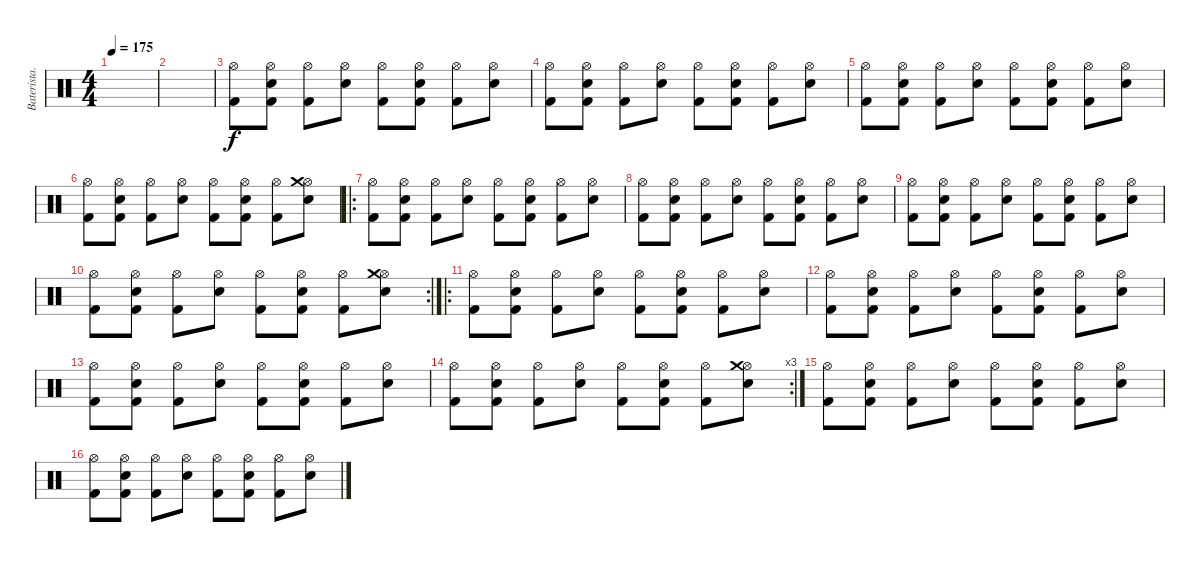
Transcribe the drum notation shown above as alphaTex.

\track ("Baterista." "Baterista.") {instrument percussion}
\staff {score}
\articulation defaults
\ts (4 4)
\tempo 175
\clef neutral
\ks c
|
|
("Kick (hit) 2" "Hi-Hat (open)").8 ("Kick (hit) 2" "Hi-Hat (open)" "Electric Snare (hit)").8 ("Kick (hit) 2" "Hi-Hat (open)").8 ("Hi-Hat (open)" "Electric Snare (hit)").8 ("Kick (hit) 2" "Hi-Hat (open)").8 ("Kick (hit) 2" "Hi-Hat (open)" "Electric Snare (hit)").8 ("Kick (hit) 2" "Hi-Hat (open)").8 ("Hi-Hat (open)" "Electric Snare (hit)").8 |
("Kick (hit) 2" "Hi-Hat (open)").8 ("Kick (hit) 2" "Hi-Hat (open)" "Electric Snare (hit)").8 ("Kick (hit) 2" "Hi-Hat (open)").8 ("Hi-Hat (open)" "Electric Snare (hit)").8 ("Kick (hit) 2" "Hi-Hat (open)").8 ("Kick (hit) 2" "Hi-Hat (open)" "Electric Snare (hit)").8 ("Kick (hit) 2" "Hi-Hat (open)").8 ("Hi-Hat (open)" "Electric Snare (hit)").8 |
("Kick (hit) 2" "Hi-Hat (open)").8 ("Kick (hit) 2" "Hi-Hat (open)" "Electric Snare (hit)").8 ("Kick (hit) 2" "Hi-Hat (open)").8 ("Hi-Hat (open)" "Electric Snare (hit)").8 ("Kick (hit) 2" "Hi-Hat (open)").8 ("Kick (hit) 2" "Hi-Hat (open)" "Electric Snare (hit)").8 ("Kick (hit) 2" "Hi-Hat (open)").8 ("Hi-Hat (open)" "Electric Snare (hit)").8 |
("Kick (hit) 2" "Hi-Hat (open)").8 ("Kick (hit) 2" "Hi-Hat (open)" "Electric Snare (hit)").8 ("Kick (hit) 2" "Hi-Hat (open)").8 ("Hi-Hat (open)" "Electric Snare (hit)").8 ("Kick (hit) 2" "Hi-Hat (open)").8 ("Kick (hit) 2" "Hi-Hat (open)" "Electric Snare (hit)").8 ("Kick (hit) 2" "Hi-Hat (open)").8 ("Hi-Hat (open)" "Electric Snare (hit)" "Crash medium (hit)").8 |
\ro
("Kick (hit) 2" "Hi-Hat (open)").8 ("Kick (hit) 2" "Hi-Hat (open)" "Electric Snare (hit)").8 ("Kick (hit) 2" "Hi-Hat (open)").8 ("Hi-Hat (open)" "Electric Snare (hit)").8 ("Kick (hit) 2" "Hi-Hat (open)").8 ("Kick (hit) 2" "Hi-Hat (open)" "Electric Snare (hit)").8 ("Kick (hit) 2" "Hi-Hat (open)").8 ("Hi-Hat (open)" "Electric Snare (hit)").8 |
("Kick (hit) 2" "Hi-Hat (open)").8 ("Kick (hit) 2" "Hi-Hat (open)" "Electric Snare (hit)").8 ("Kick (hit) 2" "Hi-Hat (open)").8 ("Hi-Hat (open)" "Electric Snare (hit)").8 ("Kick (hit) 2" "Hi-Hat (open)").8 ("Kick (hit) 2" "Hi-Hat (open)" "Electric Snare (hit)").8 ("Kick (hit) 2" "Hi-Hat (open)").8 ("Hi-Hat (open)" "Electric Snare (hit)").8 |
("Kick (hit) 2" "Hi-Hat (open)").8 ("Kick (hit) 2" "Hi-Hat (open)" "Electric Snare (hit)").8 ("Kick (hit) 2" "Hi-Hat (open)").8 ("Hi-Hat (open)" "Electric Snare (hit)").8 ("Kick (hit) 2" "Hi-Hat (open)").8 ("Kick (hit) 2" "Hi-Hat (open)" "Electric Snare (hit)").8 ("Kick (hit) 2" "Hi-Hat (open)").8 ("Hi-Hat (open)" "Electric Snare (hit)").8 |
\rc 2
("Kick (hit) 2" "Hi-Hat (open)").8 ("Kick (hit) 2" "Hi-Hat (open)" "Electric Snare (hit)").8 ("Kick (hit) 2" "Hi-Hat (open)").8 ("Hi-Hat (open)" "Electric Snare (hit)").8 ("Kick (hit) 2" "Hi-Hat (open)").8 ("Kick (hit) 2" "Hi-Hat (open)" "Electric Snare (hit)").8 ("Kick (hit) 2" "Hi-Hat (open)").8 ("Hi-Hat (open)" "Electric Snare (hit)" "Crash medium (hit)").8 |
\ro
("Kick (hit) 2" "Hi-Hat (open)").8 ("Kick (hit) 2" "Hi-Hat (open)" "Electric Snare (hit)").8 ("Kick (hit) 2" "Hi-Hat (open)").8 ("Hi-Hat (open)" "Electric Snare (hit)").8 ("Kick (hit) 2" "Hi-Hat (open)").8 ("Kick (hit) 2" "Hi-Hat (open)" "Electric Snare (hit)").8 ("Kick (hit) 2" "Hi-Hat (open)").8 ("Hi-Hat (open)" "Electric Snare (hit)").8 |
("Kick (hit) 2" "Hi-Hat (open)").8 ("Kick (hit) 2" "Hi-Hat (open)" "Electric Snare (hit)").8 ("Kick (hit) 2" "Hi-Hat (open)").8 ("Hi-Hat (open)" "Electric Snare (hit)").8 ("Kick (hit) 2" "Hi-Hat (open)").8 ("Kick (hit) 2" "Hi-Hat (open)" "Electric Snare (hit)").8 ("Kick (hit) 2" "Hi-Hat (open)").8 ("Hi-Hat (open)" "Electric Snare (hit)").8 |
("Kick (hit) 2" "Hi-Hat (open)").8 ("Kick (hit) 2" "Hi-Hat (open)" "Electric Snare (hit)").8 ("Kick (hit) 2" "Hi-Hat (open)").8 ("Hi-Hat (open)" "Electric Snare (hit)").8 ("Kick (hit) 2" "Hi-Hat (open)").8 ("Kick (hit) 2" "Hi-Hat (open)" "Electric Snare (hit)").8 ("Kick (hit) 2" "Hi-Hat (open)").8 ("Hi-Hat (open)" "Electric Snare (hit)").8 |
\rc 3
("Kick (hit) 2" "Hi-Hat (open)").8 ("Kick (hit) 2" "Hi-Hat (open)" "Electric Snare (hit)").8 ("Kick (hit) 2" "Hi-Hat (open)").8 ("Hi-Hat (open)" "Electric Snare (hit)").8 ("Kick (hit) 2" "Hi-Hat (open)").8 ("Kick (hit) 2" "Hi-Hat (open)" "Electric Snare (hit)").8 ("Kick (hit) 2" "Hi-Hat (open)").8 ("Hi-Hat (open)" "Electric Snare (hit)" "Crash medium (hit)").8 |
("Kick (hit) 2" "Hi-Hat (open)").8 ("Kick (hit) 2" "Hi-Hat (open)" "Electric Snare (hit)").8 ("Kick (hit) 2" "Hi-Hat (open)").8 ("Hi-Hat (open)" "Electric Snare (hit)").8 ("Kick (hit) 2" "Hi-Hat (open)").8 ("Kick (hit) 2" "Hi-Hat (open)" "Electric Snare (hit)").8 ("Kick (hit) 2" "Hi-Hat (open)").8 ("Hi-Hat (open)" "Electric Snare (hit)").8 |
("Kick (hit) 2" "Hi-Hat (open)").8 ("Kick (hit) 2" "Hi-Hat (open)" "Electric Snare (hit)").8 ("Kick (hit) 2" "Hi-Hat (open)").8 ("Hi-Hat (open)" "Electric Snare (hit)").8 ("Kick (hit) 2" "Hi-Hat (open)").8 ("Kick (hit) 2" "Hi-Hat (open)" "Electric Snare (hit)").8 ("Kick (hit) 2" "Hi-Hat (open)").8 ("Hi-Hat (open)" "Electric Snare (hit)").8
